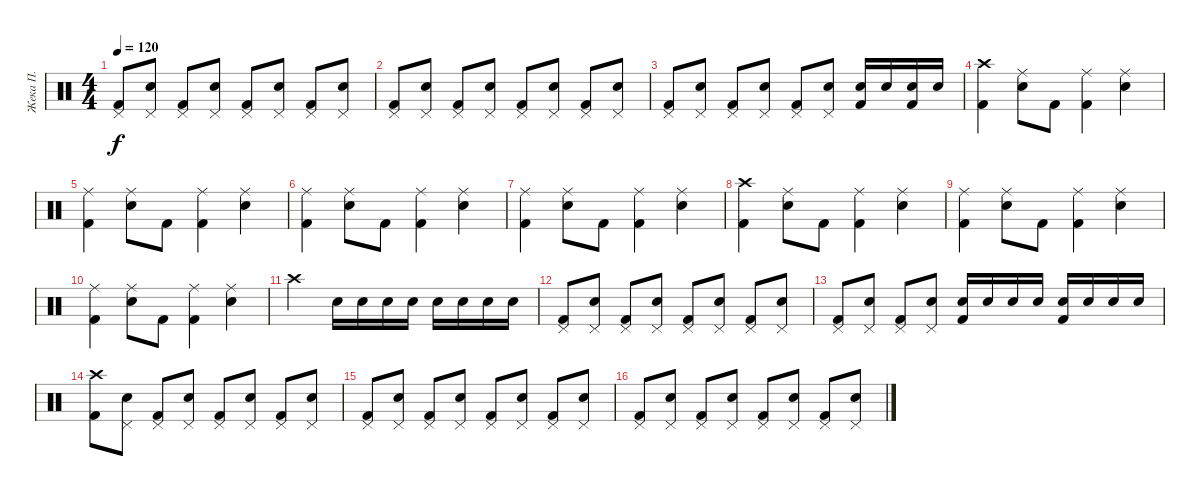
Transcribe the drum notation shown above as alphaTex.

\track ("Жека П." "Жека П.") {instrument percussion}
\staff {score}
\articulation defaults
\ts (4 4)
\tempo 120
\clef neutral
\ks c
("Pedal Hi-Hat (hit)" "Kick (hit) 2").8{dy f} ("Pedal Hi-Hat (hit)" "Snare (hit) 2").8 ("Pedal Hi-Hat (hit)" "Kick (hit) 2").8 ("Pedal Hi-Hat (hit)" "Snare (hit) 2").8 ("Pedal Hi-Hat (hit)" "Kick (hit) 2").8 ("Pedal Hi-Hat (hit)" "Snare (hit) 2").8 ("Pedal Hi-Hat (hit)" "Kick (hit) 2").8 ("Pedal Hi-Hat (hit)" "Snare (hit) 2").8 |
("Pedal Hi-Hat (hit)" "Kick (hit) 2").8 ("Pedal Hi-Hat (hit)" "Snare (hit) 2").8 ("Pedal Hi-Hat (hit)" "Kick (hit) 2").8 ("Pedal Hi-Hat (hit)" "Snare (hit) 2").8 ("Pedal Hi-Hat (hit)" "Kick (hit) 2").8 ("Pedal Hi-Hat (hit)" "Snare (hit) 2").8 ("Pedal Hi-Hat (hit)" "Kick (hit) 2").8 ("Pedal Hi-Hat (hit)" "Snare (hit) 2").8 |
("Pedal Hi-Hat (hit)" "Kick (hit) 2").8 ("Pedal Hi-Hat (hit)" "Snare (hit) 2").8 ("Pedal Hi-Hat (hit)" "Kick (hit) 2").8 ("Pedal Hi-Hat (hit)" "Snare (hit) 2").8 ("Pedal Hi-Hat (hit)" "Kick (hit) 2").8 ("Pedal Hi-Hat (hit)" "Snare (hit) 2").8 ("Snare (hit) 2" "Kick (hit) 2").16 "Snare (hit) 2".16 ("Snare (hit) 2" "Kick (hit) 2").16 "Snare (hit) 2".16 |
("Crash high (hit)" "Kick (hit) 2").4 ("Ride (middle)" "Snare (hit) 2").8 "Kick (hit) 2".8 ("Ride (middle)" "Kick (hit) 2").4 ("Ride (middle)" "Snare (hit) 2").4 |
("Ride (middle)" "Kick (hit) 2").4 ("Ride (middle)" "Snare (hit) 2").8 "Kick (hit) 2".8 ("Ride (middle)" "Kick (hit) 2").4 ("Ride (middle)" "Snare (hit) 2").4 |
("Ride (middle)" "Kick (hit) 2").4 ("Ride (middle)" "Snare (hit) 2").8 "Kick (hit) 2".8 ("Ride (middle)" "Kick (hit) 2").4 ("Ride (middle)" "Snare (hit) 2").4 |
("Ride (middle)" "Kick (hit) 2").4 ("Ride (middle)" "Snare (hit) 2").8 "Kick (hit) 2".8 ("Ride (middle)" "Kick (hit) 2").4 ("Ride (middle)" "Snare (hit) 2").4 |
("Crash high (hit)" "Kick (hit) 2").4 ("Ride (middle)" "Snare (hit) 2").8 "Kick (hit) 2".8 ("Ride (middle)" "Kick (hit) 2").4 ("Ride (middle)" "Snare (hit) 2").4 |
("Ride (middle)" "Kick (hit) 2").4 ("Ride (middle)" "Snare (hit) 2").8 "Kick (hit) 2".8 ("Ride (middle)" "Kick (hit) 2").4 ("Ride (middle)" "Snare (hit) 2").4 |
("Ride (middle)" "Kick (hit) 2").4 ("Ride (middle)" "Snare (hit) 2").8 "Kick (hit) 2".8 ("Ride (middle)" "Kick (hit) 2").4 ("Ride (middle)" "Snare (hit) 2").4 |
"Crash high (hit)".2 "Snare (hit) 2".16 "Snare (hit) 2".16 "Snare (hit) 2".16 "Snare (hit) 2".16 "Snare (hit) 2".16 "Snare (hit) 2".16 "Snare (hit) 2".16 "Snare (hit) 2".16 |
("Pedal Hi-Hat (hit)" "Kick (hit) 2").8 ("Pedal Hi-Hat (hit)" "Snare (hit) 2").8 ("Pedal Hi-Hat (hit)" "Kick (hit) 2").8 ("Pedal Hi-Hat (hit)" "Snare (hit) 2").8 ("Pedal Hi-Hat (hit)" "Kick (hit) 2").8 ("Pedal Hi-Hat (hit)" "Snare (hit) 2").8 ("Pedal Hi-Hat (hit)" "Kick (hit) 2").8 ("Pedal Hi-Hat (hit)" "Snare (hit) 2").8 |
("Pedal Hi-Hat (hit)" "Kick (hit) 2").8 ("Pedal Hi-Hat (hit)" "Snare (hit) 2").8 ("Pedal Hi-Hat (hit)" "Kick (hit) 2").8 ("Pedal Hi-Hat (hit)" "Snare (hit) 2").8 ("Snare (hit) 2" "Kick (hit) 2").16 "Snare (hit) 2".16 "Snare (hit) 2".16 "Snare (hit) 2".16 ("Snare (hit) 2" "Kick (hit) 2").16 "Snare (hit) 2".16 "Snare (hit) 2".16 "Snare (hit) 2".16 |
("Crash high (hit)" "Kick (hit) 2").8 ("Pedal Hi-Hat (hit)" "Snare (hit) 2").8 ("Pedal Hi-Hat (hit)" "Kick (hit) 2").8 ("Pedal Hi-Hat (hit)" "Snare (hit) 2").8 ("Pedal Hi-Hat (hit)" "Kick (hit) 2").8 ("Pedal Hi-Hat (hit)" "Snare (hit) 2").8 ("Pedal Hi-Hat (hit)" "Kick (hit) 2").8 ("Pedal Hi-Hat (hit)" "Snare (hit) 2").8 |
("Pedal Hi-Hat (hit)" "Kick (hit) 2").8 ("Pedal Hi-Hat (hit)" "Snare (hit) 2").8 ("Pedal Hi-Hat (hit)" "Kick (hit) 2").8 ("Pedal Hi-Hat (hit)" "Snare (hit) 2").8 ("Pedal Hi-Hat (hit)" "Kick (hit) 2").8 ("Pedal Hi-Hat (hit)" "Snare (hit) 2").8 ("Pedal Hi-Hat (hit)" "Kick (hit) 2").8 ("Pedal Hi-Hat (hit)" "Snare (hit) 2").8 |
("Pedal Hi-Hat (hit)" "Kick (hit) 2").8 ("Pedal Hi-Hat (hit)" "Snare (hit) 2").8 ("Pedal Hi-Hat (hit)" "Kick (hit) 2").8 ("Pedal Hi-Hat (hit)" "Snare (hit) 2").8 ("Pedal Hi-Hat (hit)" "Kick (hit) 2").8 ("Pedal Hi-Hat (hit)" "Snare (hit) 2").8 ("Pedal Hi-Hat (hit)" "Kick (hit) 2").8 ("Pedal Hi-Hat (hit)" "Snare (hit) 2").8
